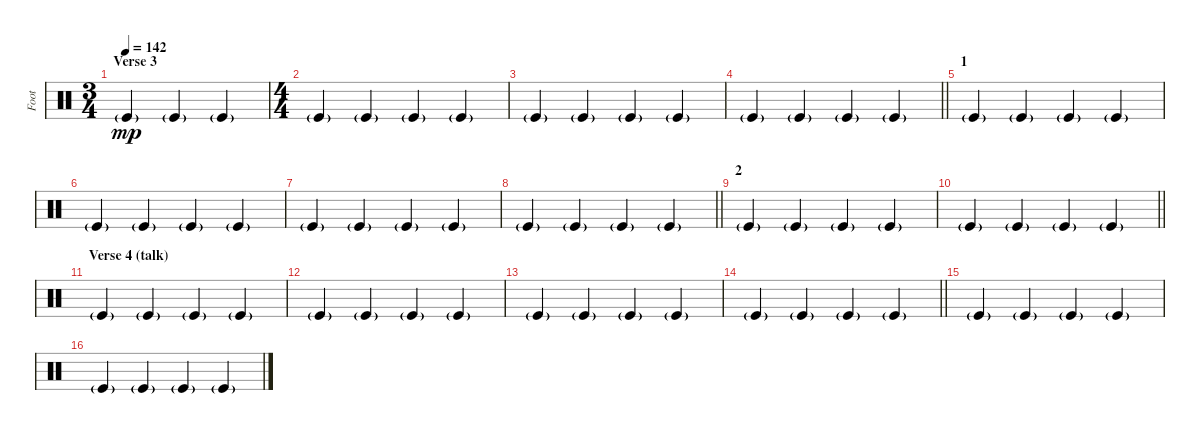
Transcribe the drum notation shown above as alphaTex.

\track ("Foot" "Foot") {instrument percussion}
\staff {score}
\articulation defaults
\ts (3 4)
\section ("" "Verse 3")
\tempo 142
\clef neutral
\ks c "Kick (hit)"{g}.4{dy mp} "Kick (hit)"{g}.4 "Kick (hit)"{g}.4
|
\ts (4 4)
"Kick (hit)"{g}.4 "Kick (hit)"{g}.4 "Kick (hit)"{g}.4 "Kick (hit)"{g}.4 |
"Kick (hit)"{g}.4 "Kick (hit)"{g}.4 "Kick (hit)"{g}.4 "Kick (hit)"{g}.4 |
\barLineRight lightlight "Kick (hit)"{g}.4 "Kick (hit)"{g}.4 "Kick (hit)"{g}.4 "Kick (hit)"{g}.4
|
\section ("" "1")
"Kick (hit)"{g}.4 "Kick (hit)"{g}.4 "Kick (hit)"{g}.4 "Kick (hit)"{g}.4 |
"Kick (hit)"{g}.4 "Kick (hit)"{g}.4 "Kick (hit)"{g}.4 "Kick (hit)"{g}.4 |
"Kick (hit)"{g}.4 "Kick (hit)"{g}.4 "Kick (hit)"{g}.4 "Kick (hit)"{g}.4 |
\barLineRight lightlight "Kick (hit)"{g}.4 "Kick (hit)"{g}.4 "Kick (hit)"{g}.4 "Kick (hit)"{g}.4
|
\section ("" "2")
"Kick (hit)"{g}.4 "Kick (hit)"{g}.4 "Kick (hit)"{g}.4 "Kick (hit)"{g}.4 |
\barLineRight lightlight "Kick (hit)"{g}.4 "Kick (hit)"{g}.4 "Kick (hit)"{g}.4 "Kick (hit)"{g}.4
|
\section ("" "Verse 4 (talk)")
"Kick (hit)"{g}.4 "Kick (hit)"{g}.4 "Kick (hit)"{g}.4 "Kick (hit)"{g}.4 |
"Kick (hit)"{g}.4 "Kick (hit)"{g}.4 "Kick (hit)"{g}.4 "Kick (hit)"{g}.4 |
"Kick (hit)"{g}.4 "Kick (hit)"{g}.4 "Kick (hit)"{g}.4 "Kick (hit)"{g}.4 |
\barLineRight lightlight "Kick (hit)"{g}.4 "Kick (hit)"{g}.4 "Kick (hit)"{g}.4 "Kick (hit)"{g}.4
|
"Kick (hit)"{g}.4 "Kick (hit)"{g}.4 "Kick (hit)"{g}.4 "Kick (hit)"{g}.4 |
"Kick (hit)"{g}.4 "Kick (hit)"{g}.4 "Kick (hit)"{g}.4 "Kick (hit)"{g}.4
